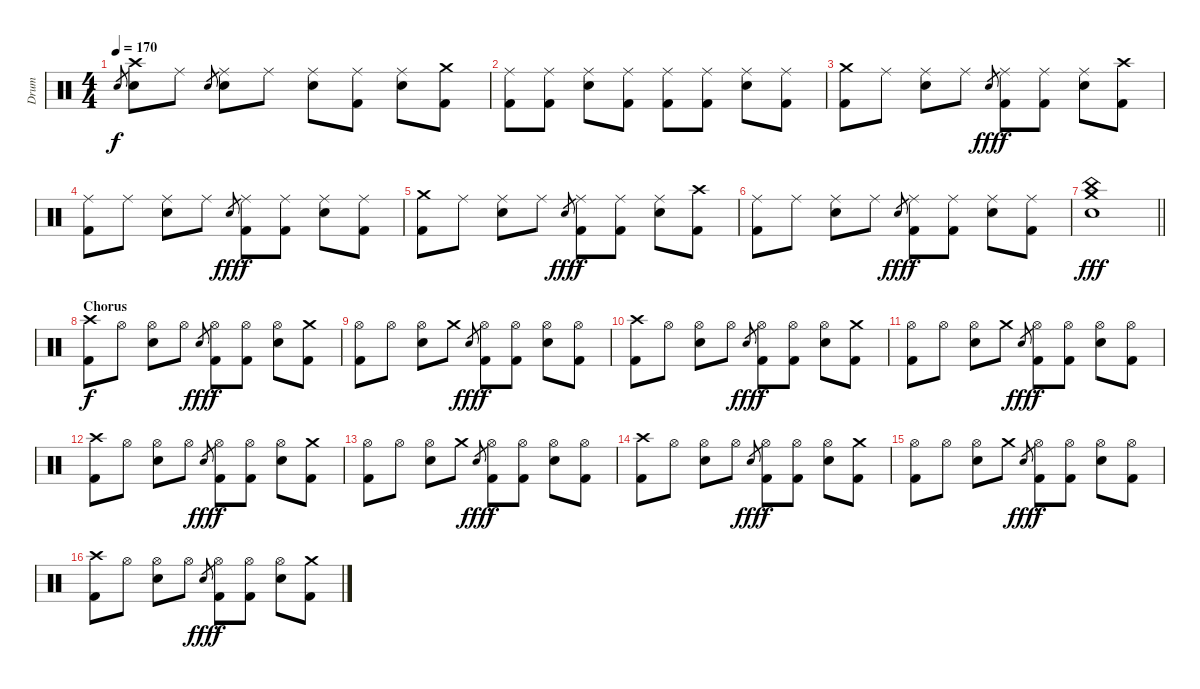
\track ("Drum" "Drum") {instrument percussion}
\staff {score}
\articulation defaults
\ts (4 4)
\tempo 170
\clef neutral
\ks c "Electric Snare (hit)".8{gr dy f}
("Crash high (hit)" "Electric Snare (hit)").8 "Ride (middle)".8 "Electric Snare (hit)".8{gr} ("Ride (middle)" "Electric Snare (hit)").8 "Ride (middle)".8 ("Ride (middle)" "Electric Snare (hit)").8 ("Ride (middle)" "Kick (hit) 2").8 ("Ride (middle)" "Electric Snare (hit)").8 ("Crash medium (hit)" "Kick (hit) 2").8 |
("Ride (middle)" "Kick (hit) 2").8 ("Ride (middle)" "Kick (hit) 2").8 ("Ride (middle)" "Electric Snare (hit)").8 ("Ride (middle)" "Kick (hit) 2").8 ("Ride (middle)" "Kick (hit) 2").8 ("Ride (middle)" "Kick (hit) 2").8 ("Ride (middle)" "Electric Snare (hit)").8 ("Ride (middle)" "Kick (hit) 2").8 |
("Crash medium (hit)" "Kick (hit) 2").8 "Ride (middle)".8 ("Ride (middle)" "Electric Snare (hit)").8 "Ride (middle)".8 "Electric Snare (hit)".8{gr dy fff} ("Ride (middle)" "Kick (hit) 2").8{dy f} ("Ride (middle)" "Kick (hit) 2").8 ("Ride (middle)" "Electric Snare (hit)").8 ("Crash high (hit)" "Kick (hit) 2").8 |
("Ride (middle)" "Kick (hit) 2").8 "Ride (middle)".8 ("Ride (middle)" "Electric Snare (hit)").8 "Ride (middle)".8 "Electric Snare (hit)".8{gr dy fff} ("Ride (middle)" "Kick (hit) 2").8{dy f} ("Ride (middle)" "Kick (hit) 2").8 ("Ride (middle)" "Electric Snare (hit)").8 ("Ride (middle)" "Kick (hit) 2").8 |
("Crash medium (hit)" "Kick (hit) 2").8 "Ride (middle)".8 ("Ride (middle)" "Electric Snare (hit)").8 "Ride (middle)".8 "Electric Snare (hit)".8{gr dy fff} ("Ride (middle)" "Kick (hit) 2").8{dy f} ("Ride (middle)" "Kick (hit) 2").8 ("Ride (middle)" "Electric Snare (hit)").8 ("Crash high (hit)" "Kick (hit) 2").8 |
("Ride (middle)" "Kick (hit) 2").8 "Ride (middle)".8 ("Ride (middle)" "Electric Snare (hit)").8 "Ride (middle)".8 "Electric Snare (hit)".8{gr dy fff} ("Ride (middle)" "Kick (hit) 2").8{dy f} ("Ride (middle)" "Kick (hit) 2").8 ("Ride (middle)" "Electric Snare (hit)").8 ("Ride (middle)" "Kick (hit) 2").8 |
\barLineRight lightlight
("Crash medium (hit)" "China (hit)" "Electric Snare (hit)").1{dy fff} |
\section ("" "Chorus")
("Crash high (hit)" "Kick (hit) 2").8{dy f} "Hi-Hat (open)".8 ("Hi-Hat (open)" "Electric Snare (hit)").8 "Hi-Hat (open)".8 "Electric Snare (hit)".8{gr dy fff} ("Hi-Hat (open)" "Kick (hit) 2").8{dy f} ("Hi-Hat (open)" "Kick (hit) 2").8 ("Hi-Hat (open)" "Electric Snare (hit)").8 ("Crash medium (hit)" "Kick (hit) 2").8 |
("Hi-Hat (open)" "Kick (hit) 2").8 "Hi-Hat (open)".8 ("Hi-Hat (open)" "Electric Snare (hit)").8 "Crash medium (hit)".8 "Electric Snare (hit)".8{gr dy fff} ("Hi-Hat (open)" "Kick (hit) 2").8{dy f} ("Hi-Hat (open)" "Kick (hit) 2").8 ("Hi-Hat (open)" "Electric Snare (hit)").8 ("Hi-Hat (open)" "Kick (hit) 2").8 |
("Crash high (hit)" "Kick (hit) 2").8 "Hi-Hat (open)".8 ("Hi-Hat (open)" "Electric Snare (hit)").8 "Hi-Hat (open)".8 "Electric Snare (hit)".8{gr dy fff} ("Hi-Hat (open)" "Kick (hit) 2").8{dy f} ("Hi-Hat (open)" "Kick (hit) 2").8 ("Hi-Hat (open)" "Electric Snare (hit)").8 ("Crash medium (hit)" "Kick (hit) 2").8 |
("Hi-Hat (open)" "Kick (hit) 2").8 "Hi-Hat (open)".8 ("Hi-Hat (open)" "Electric Snare (hit)").8 "Crash medium (hit)".8 "Electric Snare (hit)".8{gr dy fff} ("Hi-Hat (open)" "Kick (hit) 2").8{dy f} ("Hi-Hat (open)" "Kick (hit) 2").8 ("Hi-Hat (open)" "Electric Snare (hit)").8 ("Hi-Hat (open)" "Kick (hit) 2").8 |
("Crash high (hit)" "Kick (hit) 2").8 "Hi-Hat (open)".8 ("Hi-Hat (open)" "Electric Snare (hit)").8 "Hi-Hat (open)".8 "Electric Snare (hit)".8{gr dy fff} ("Hi-Hat (open)" "Kick (hit) 2").8{dy f} ("Hi-Hat (open)" "Kick (hit) 2").8 ("Hi-Hat (open)" "Electric Snare (hit)").8 ("Crash medium (hit)" "Kick (hit) 2").8 |
("Hi-Hat (open)" "Kick (hit) 2").8 "Hi-Hat (open)".8 ("Hi-Hat (open)" "Electric Snare (hit)").8 "Crash medium (hit)".8 "Electric Snare (hit)".8{gr dy fff} ("Hi-Hat (open)" "Kick (hit) 2").8{dy f} ("Hi-Hat (open)" "Kick (hit) 2").8 ("Hi-Hat (open)" "Electric Snare (hit)").8 ("Hi-Hat (open)" "Kick (hit) 2").8 |
("Crash high (hit)" "Kick (hit) 2").8 "Hi-Hat (open)".8 ("Hi-Hat (open)" "Electric Snare (hit)").8 "Hi-Hat (open)".8 "Electric Snare (hit)".8{gr dy fff} ("Hi-Hat (open)" "Kick (hit) 2").8{dy f} ("Hi-Hat (open)" "Kick (hit) 2").8 ("Hi-Hat (open)" "Electric Snare (hit)").8 ("Crash medium (hit)" "Kick (hit) 2").8 |
("Hi-Hat (open)" "Kick (hit) 2").8 "Hi-Hat (open)".8 ("Hi-Hat (open)" "Electric Snare (hit)").8 "Crash medium (hit)".8 "Electric Snare (hit)".8{gr dy fff} ("Hi-Hat (open)" "Kick (hit) 2").8{dy f} ("Hi-Hat (open)" "Kick (hit) 2").8 ("Hi-Hat (open)" "Electric Snare (hit)").8 ("Hi-Hat (open)" "Kick (hit) 2").8 |
("Crash high (hit)" "Kick (hit) 2").8 "Hi-Hat (open)".8 ("Hi-Hat (open)" "Electric Snare (hit)").8 "Hi-Hat (open)".8 "Electric Snare (hit)".8{gr dy fff} ("Hi-Hat (open)" "Kick (hit) 2").8{dy f} ("Hi-Hat (open)" "Kick (hit) 2").8 ("Hi-Hat (open)" "Electric Snare (hit)").8 ("Crash medium (hit)" "Kick (hit) 2").8
